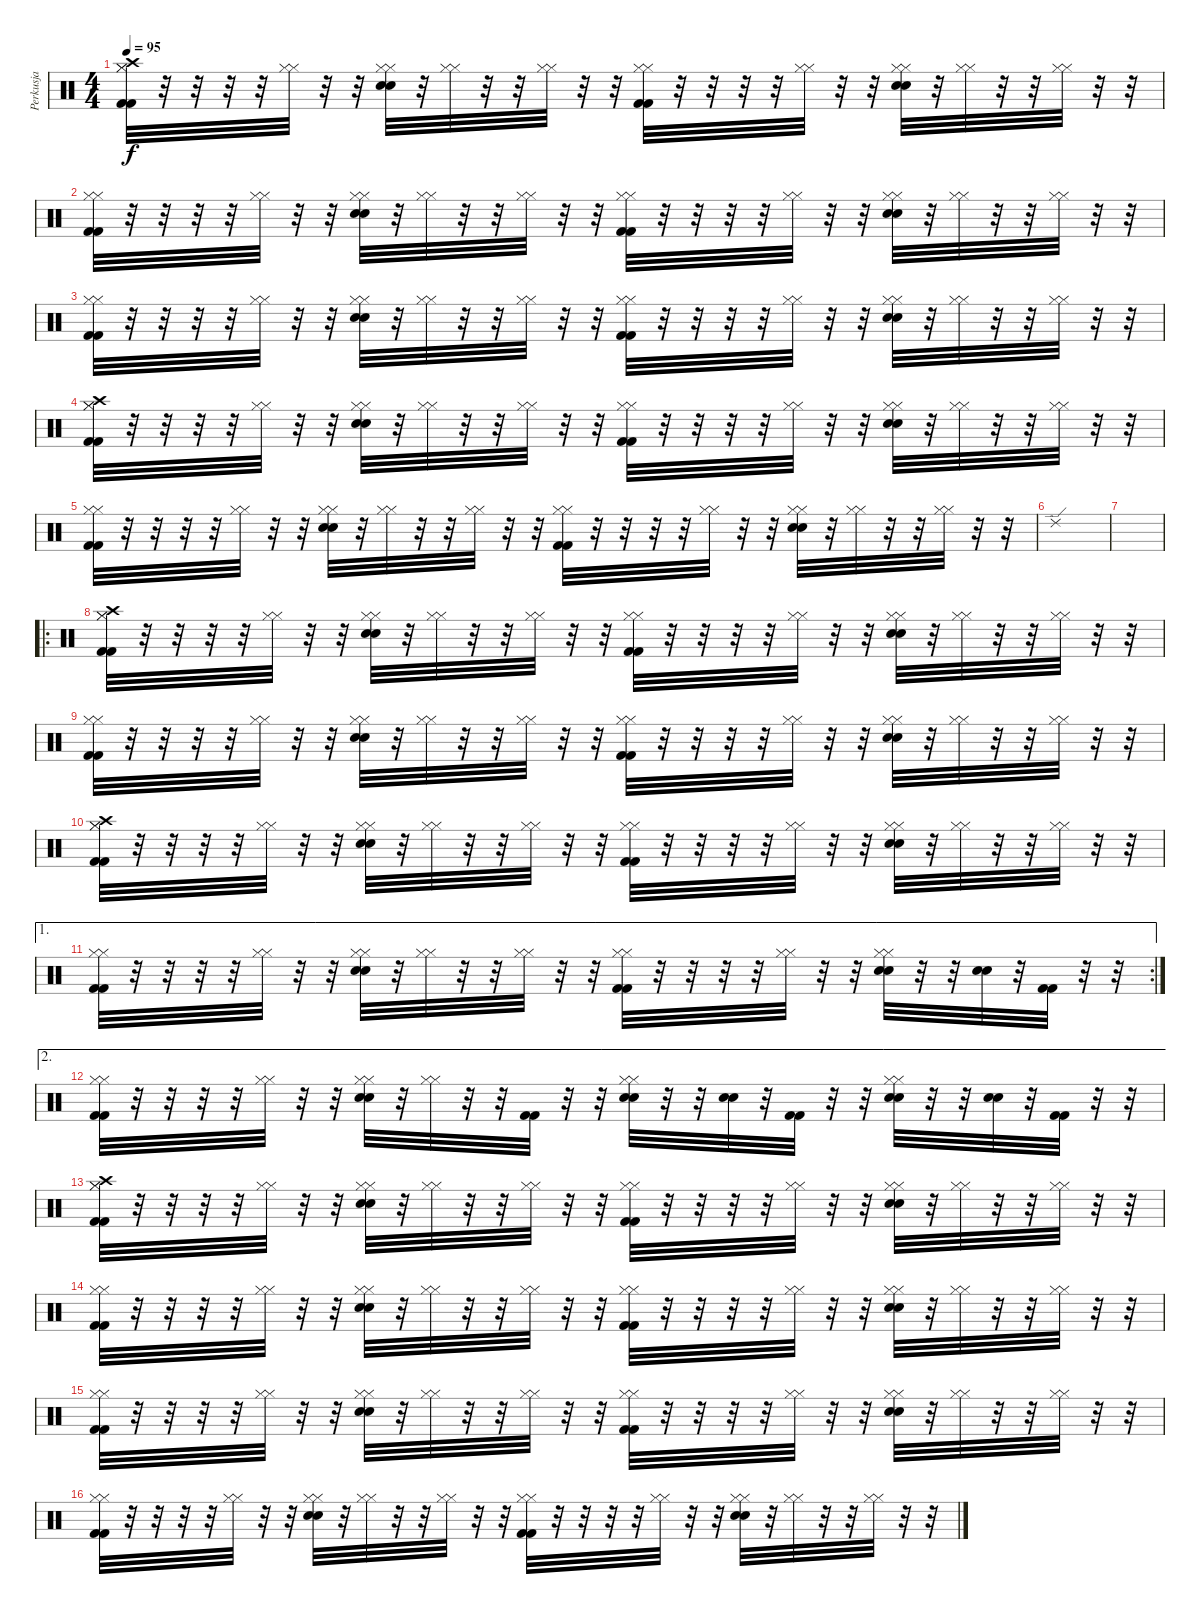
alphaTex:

\track ("Perkusja" "Perkusja") {instrument percussion}
\staff {score}
\articulation defaults
\ts (4 4)
\tempo 95
\clef neutral
\ks c
("Crash high (hit)" "Hi-Hat (closed)" "Hi-Hat (closed)" "Kick (hit) 2" "Kick (hit) 2").32{dy f} r.32 r.32 r.32 r.32 ("Hi-Hat (closed)" "Hi-Hat (closed)").32 r.32 r.32 ("Hi-Hat (closed)" "Hi-Hat (closed)" "Snare (hit) 2" "Snare (hit) 2").32 r.32 ("Hi-Hat (closed)" "Hi-Hat (closed)").32 r.32 r.32 ("Hi-Hat (closed)" "Hi-Hat (closed)").32 r.32 r.32 ("Hi-Hat (closed)" "Hi-Hat (closed)" "Kick (hit) 2" "Kick (hit) 2").32 r.32 r.32 r.32 r.32 ("Hi-Hat (closed)" "Hi-Hat (closed)").32 r.32 r.32 ("Hi-Hat (closed)" "Hi-Hat (closed)" "Snare (hit) 2" "Snare (hit) 2").32 r.32 ("Hi-Hat (closed)" "Hi-Hat (closed)").32 r.32 r.32 ("Hi-Hat (closed)" "Hi-Hat (closed)").32 r.32 r.32 |
("Hi-Hat (closed)" "Hi-Hat (closed)" "Kick (hit) 2" "Kick (hit) 2").32 r.32 r.32 r.32 r.32 ("Hi-Hat (closed)" "Hi-Hat (closed)").32 r.32 r.32 ("Hi-Hat (closed)" "Hi-Hat (closed)" "Snare (hit) 2" "Snare (hit) 2").32 r.32 ("Hi-Hat (closed)" "Hi-Hat (closed)").32 r.32 r.32 ("Hi-Hat (closed)" "Hi-Hat (closed)").32 r.32 r.32 ("Hi-Hat (closed)" "Hi-Hat (closed)" "Kick (hit) 2" "Kick (hit) 2").32 r.32 r.32 r.32 r.32 ("Hi-Hat (closed)" "Hi-Hat (closed)").32 r.32 r.32 ("Hi-Hat (closed)" "Hi-Hat (closed)" "Snare (hit) 2" "Snare (hit) 2").32 r.32 ("Hi-Hat (closed)" "Hi-Hat (closed)").32 r.32 r.32 ("Hi-Hat (closed)" "Hi-Hat (closed)").32 r.32 r.32 |
("Hi-Hat (closed)" "Hi-Hat (closed)" "Kick (hit) 2" "Kick (hit) 2").32 r.32 r.32 r.32 r.32 ("Hi-Hat (closed)" "Hi-Hat (closed)").32 r.32 r.32 ("Hi-Hat (closed)" "Hi-Hat (closed)" "Snare (hit) 2" "Snare (hit) 2").32 r.32 ("Hi-Hat (closed)" "Hi-Hat (closed)").32 r.32 r.32 ("Hi-Hat (closed)" "Hi-Hat (closed)").32 r.32 r.32 ("Hi-Hat (closed)" "Hi-Hat (closed)" "Kick (hit) 2" "Kick (hit) 2").32 r.32 r.32 r.32 r.32 ("Hi-Hat (closed)" "Hi-Hat (closed)").32 r.32 r.32 ("Hi-Hat (closed)" "Hi-Hat (closed)" "Snare (hit) 2" "Snare (hit) 2").32 r.32 ("Hi-Hat (closed)" "Hi-Hat (closed)").32 r.32 r.32 ("Hi-Hat (closed)" "Hi-Hat (closed)").32 r.32 r.32 |
("Crash high (hit)" "Hi-Hat (closed)" "Hi-Hat (closed)" "Kick (hit) 2" "Kick (hit) 2").32 r.32 r.32 r.32 r.32 ("Hi-Hat (closed)" "Hi-Hat (closed)").32 r.32 r.32 ("Hi-Hat (closed)" "Hi-Hat (closed)" "Snare (hit) 2" "Snare (hit) 2").32 r.32 ("Hi-Hat (closed)" "Hi-Hat (closed)").32 r.32 r.32 ("Hi-Hat (closed)" "Hi-Hat (closed)").32 r.32 r.32 ("Hi-Hat (closed)" "Hi-Hat (closed)" "Kick (hit) 2" "Kick (hit) 2").32 r.32 r.32 r.32 r.32 ("Hi-Hat (closed)" "Hi-Hat (closed)").32 r.32 r.32 ("Hi-Hat (closed)" "Hi-Hat (closed)" "Snare (hit) 2" "Snare (hit) 2").32 r.32 ("Hi-Hat (closed)" "Hi-Hat (closed)").32 r.32 r.32 ("Hi-Hat (closed)" "Hi-Hat (closed)").32 r.32 r.32 |
("Hi-Hat (closed)" "Hi-Hat (closed)" "Kick (hit) 2" "Kick (hit) 2").32 r.32 r.32 r.32 r.32 ("Hi-Hat (closed)" "Hi-Hat (closed)").32 r.32 r.32 ("Hi-Hat (closed)" "Hi-Hat (closed)" "Snare (hit) 2" "Snare (hit) 2").32 r.32 ("Hi-Hat (closed)" "Hi-Hat (closed)").32 r.32 r.32 ("Hi-Hat (closed)" "Hi-Hat (closed)").32 r.32 r.32 ("Hi-Hat (closed)" "Hi-Hat (closed)" "Kick (hit) 2" "Kick (hit) 2").32 r.32 r.32 r.32 r.32 ("Hi-Hat (closed)" "Hi-Hat (closed)").32 r.32 r.32 ("Hi-Hat (closed)" "Hi-Hat (closed)" "Snare (hit) 2" "Snare (hit) 2").32 r.32 ("Hi-Hat (closed)" "Hi-Hat (closed)").32 r.32 r.32 ("Hi-Hat (closed)" "Hi-Hat (closed)").32 r.32 r.32 |
"Ride (edge) 2".1 |
|
\ro
("Crash high (hit)" "Hi-Hat (closed)" "Hi-Hat (closed)" "Kick (hit) 2" "Kick (hit) 2").32 r.32 r.32 r.32 r.32 ("Hi-Hat (closed)" "Hi-Hat (closed)").32 r.32 r.32 ("Hi-Hat (closed)" "Hi-Hat (closed)" "Snare (hit) 2" "Snare (hit) 2").32 r.32 ("Hi-Hat (closed)" "Hi-Hat (closed)").32 r.32 r.32 ("Hi-Hat (closed)" "Hi-Hat (closed)").32 r.32 r.32 ("Hi-Hat (closed)" "Hi-Hat (closed)" "Kick (hit) 2" "Kick (hit) 2").32 r.32 r.32 r.32 r.32 ("Hi-Hat (closed)" "Hi-Hat (closed)").32 r.32 r.32 ("Hi-Hat (closed)" "Hi-Hat (closed)" "Snare (hit) 2" "Snare (hit) 2").32 r.32 ("Hi-Hat (closed)" "Hi-Hat (closed)").32 r.32 r.32 ("Hi-Hat (closed)" "Hi-Hat (closed)").32 r.32 r.32 |
("Hi-Hat (closed)" "Hi-Hat (closed)" "Kick (hit) 2" "Kick (hit) 2").32 r.32 r.32 r.32 r.32 ("Hi-Hat (closed)" "Hi-Hat (closed)").32 r.32 r.32 ("Hi-Hat (closed)" "Hi-Hat (closed)" "Snare (hit) 2" "Snare (hit) 2").32 r.32 ("Hi-Hat (closed)" "Hi-Hat (closed)").32 r.32 r.32 ("Hi-Hat (closed)" "Hi-Hat (closed)").32 r.32 r.32 ("Hi-Hat (closed)" "Hi-Hat (closed)" "Kick (hit) 2" "Kick (hit) 2").32 r.32 r.32 r.32 r.32 ("Hi-Hat (closed)" "Hi-Hat (closed)").32 r.32 r.32 ("Hi-Hat (closed)" "Hi-Hat (closed)" "Snare (hit) 2" "Snare (hit) 2").32 r.32 ("Hi-Hat (closed)" "Hi-Hat (closed)").32 r.32 r.32 ("Hi-Hat (closed)" "Hi-Hat (closed)").32 r.32 r.32 |
("Crash high (hit)" "Hi-Hat (closed)" "Hi-Hat (closed)" "Kick (hit) 2" "Kick (hit) 2").32 r.32 r.32 r.32 r.32 ("Hi-Hat (closed)" "Hi-Hat (closed)").32 r.32 r.32 ("Hi-Hat (closed)" "Hi-Hat (closed)" "Snare (hit) 2" "Snare (hit) 2").32 r.32 ("Hi-Hat (closed)" "Hi-Hat (closed)").32 r.32 r.32 ("Hi-Hat (closed)" "Hi-Hat (closed)").32 r.32 r.32 ("Hi-Hat (closed)" "Hi-Hat (closed)" "Kick (hit) 2" "Kick (hit) 2").32 r.32 r.32 r.32 r.32 ("Hi-Hat (closed)" "Hi-Hat (closed)").32 r.32 r.32 ("Hi-Hat (closed)" "Hi-Hat (closed)" "Snare (hit) 2" "Snare (hit) 2").32 r.32 ("Hi-Hat (closed)" "Hi-Hat (closed)").32 r.32 r.32 ("Hi-Hat (closed)" "Hi-Hat (closed)").32 r.32 r.32 |
\ae 1
\rc 2
("Hi-Hat (closed)" "Hi-Hat (closed)" "Kick (hit) 2" "Kick (hit) 2").32 r.32 r.32 r.32 r.32 ("Hi-Hat (closed)" "Hi-Hat (closed)").32 r.32 r.32 ("Hi-Hat (closed)" "Hi-Hat (closed)" "Snare (hit) 2" "Snare (hit) 2").32 r.32 ("Hi-Hat (closed)" "Hi-Hat (closed)").32 r.32 r.32 ("Hi-Hat (closed)" "Hi-Hat (closed)").32 r.32 r.32 ("Hi-Hat (closed)" "Hi-Hat (closed)" "Kick (hit) 2" "Kick (hit) 2").32 r.32 r.32 r.32 r.32 ("Hi-Hat (closed)" "Hi-Hat (closed)").32 r.32 r.32 ("Hi-Hat (closed)" "Hi-Hat (closed)" "Snare (hit) 2" "Snare (hit) 2").32 r.32 r.32 ("Snare (hit) 2" "Snare (hit) 2").32 r.32 ("Kick (hit) 2" "Kick (hit) 2").32 r.32 r.32 |
\ae 2
("Hi-Hat (closed)" "Hi-Hat (closed)" "Kick (hit) 2" "Kick (hit) 2").32 r.32 r.32 r.32 r.32 ("Hi-Hat (closed)" "Hi-Hat (closed)").32 r.32 r.32 ("Hi-Hat (closed)" "Hi-Hat (closed)" "Snare (hit) 2" "Snare (hit) 2").32 r.32 ("Hi-Hat (closed)" "Hi-Hat (closed)").32 r.32 r.32 ("Kick (hit) 2" "Kick (hit) 2").32 r.32 r.32 ("Hi-Hat (closed)" "Hi-Hat (closed)" "Snare (hit) 2" "Snare (hit) 2").32 r.32 r.32 ("Snare (hit) 2" "Snare (hit) 2").32 r.32 ("Kick (hit) 2" "Kick (hit) 2").32 r.32 r.32 ("Hi-Hat (closed)" "Hi-Hat (closed)" "Snare (hit) 2" "Snare (hit) 2").32 r.32 r.32 ("Snare (hit) 2" "Snare (hit) 2").32 r.32 ("Kick (hit) 2" "Kick (hit) 2").32 r.32 r.32 |
("Crash high (hit)" "Hi-Hat (closed)" "Hi-Hat (closed)" "Kick (hit) 2" "Kick (hit) 2").32 r.32 r.32 r.32 r.32 ("Hi-Hat (closed)" "Hi-Hat (closed)").32 r.32 r.32 ("Hi-Hat (closed)" "Hi-Hat (closed)" "Snare (hit) 2" "Snare (hit) 2").32 r.32 ("Hi-Hat (closed)" "Hi-Hat (closed)").32 r.32 r.32 ("Hi-Hat (closed)" "Hi-Hat (closed)").32 r.32 r.32 ("Hi-Hat (closed)" "Hi-Hat (closed)" "Kick (hit) 2" "Kick (hit) 2").32 r.32 r.32 r.32 r.32 ("Hi-Hat (closed)" "Hi-Hat (closed)").32 r.32 r.32 ("Hi-Hat (closed)" "Hi-Hat (closed)" "Snare (hit) 2" "Snare (hit) 2").32 r.32 ("Hi-Hat (closed)" "Hi-Hat (closed)").32 r.32 r.32 ("Hi-Hat (closed)" "Hi-Hat (closed)").32 r.32 r.32 |
("Hi-Hat (closed)" "Hi-Hat (closed)" "Kick (hit) 2" "Kick (hit) 2").32 r.32 r.32 r.32 r.32 ("Hi-Hat (closed)" "Hi-Hat (closed)").32 r.32 r.32 ("Hi-Hat (closed)" "Hi-Hat (closed)" "Snare (hit) 2" "Snare (hit) 2").32 r.32 ("Hi-Hat (closed)" "Hi-Hat (closed)").32 r.32 r.32 ("Hi-Hat (closed)" "Hi-Hat (closed)").32 r.32 r.32 ("Hi-Hat (closed)" "Hi-Hat (closed)" "Kick (hit) 2" "Kick (hit) 2").32 r.32 r.32 r.32 r.32 ("Hi-Hat (closed)" "Hi-Hat (closed)").32 r.32 r.32 ("Hi-Hat (closed)" "Hi-Hat (closed)" "Snare (hit) 2" "Snare (hit) 2").32 r.32 ("Hi-Hat (closed)" "Hi-Hat (closed)").32 r.32 r.32 ("Hi-Hat (closed)" "Hi-Hat (closed)").32 r.32 r.32 |
("Hi-Hat (closed)" "Hi-Hat (closed)" "Kick (hit) 2" "Kick (hit) 2").32 r.32 r.32 r.32 r.32 ("Hi-Hat (closed)" "Hi-Hat (closed)").32 r.32 r.32 ("Hi-Hat (closed)" "Hi-Hat (closed)" "Snare (hit) 2" "Snare (hit) 2").32 r.32 ("Hi-Hat (closed)" "Hi-Hat (closed)").32 r.32 r.32 ("Hi-Hat (closed)" "Hi-Hat (closed)").32 r.32 r.32 ("Hi-Hat (closed)" "Hi-Hat (closed)" "Kick (hit) 2" "Kick (hit) 2").32 r.32 r.32 r.32 r.32 ("Hi-Hat (closed)" "Hi-Hat (closed)").32 r.32 r.32 ("Hi-Hat (closed)" "Hi-Hat (closed)" "Snare (hit) 2" "Snare (hit) 2").32 r.32 ("Hi-Hat (closed)" "Hi-Hat (closed)").32 r.32 r.32 ("Hi-Hat (closed)" "Hi-Hat (closed)").32 r.32 r.32 |
("Hi-Hat (closed)" "Hi-Hat (closed)" "Kick (hit) 2" "Kick (hit) 2").32 r.32 r.32 r.32 r.32 ("Hi-Hat (closed)" "Hi-Hat (closed)").32 r.32 r.32 ("Hi-Hat (closed)" "Hi-Hat (closed)" "Snare (hit) 2" "Snare (hit) 2").32 r.32 ("Hi-Hat (closed)" "Hi-Hat (closed)").32 r.32 r.32 ("Hi-Hat (closed)" "Hi-Hat (closed)").32 r.32 r.32 ("Hi-Hat (closed)" "Hi-Hat (closed)" "Kick (hit) 2" "Kick (hit) 2").32 r.32 r.32 r.32 r.32 ("Hi-Hat (closed)" "Hi-Hat (closed)").32 r.32 r.32 ("Hi-Hat (closed)" "Hi-Hat (closed)" "Snare (hit) 2" "Snare (hit) 2").32 r.32 ("Hi-Hat (closed)" "Hi-Hat (closed)").32 r.32 r.32 ("Hi-Hat (closed)" "Hi-Hat (closed)").32 r.32 r.32
